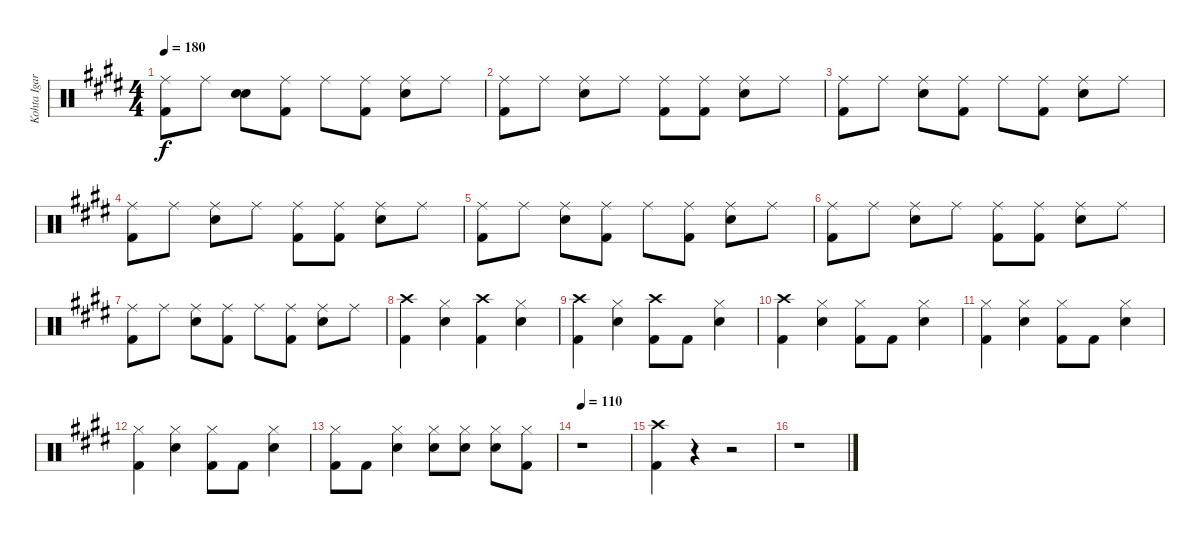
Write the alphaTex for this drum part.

\track ("Kohta Igarashi" "Kohta Igar") {instrument percussion}
\staff {score}
\articulation defaults
\ts (4 4)
\tempo 180
\clef neutral
\ks e
("Ride (middle)" "Kick (hit) 2").8{dy f} "Ride (middle)".8 ("Snare (hit)" "Electric Snare (hit)").8 ("Ride (middle)" "Kick (hit) 2").8 "Ride (middle)".8 ("Ride (middle)" "Kick (hit) 2").8 ("Ride (middle)" "Electric Snare (hit)").8 "Ride (middle)".8 |
("Ride (middle)" "Kick (hit) 2").8 "Ride (middle)".8 ("Ride (middle)" "Electric Snare (hit)").8 "Ride (middle)".8 ("Ride (middle)" "Kick (hit) 2").8 ("Ride (middle)" "Kick (hit) 2").8 ("Ride (middle)" "Electric Snare (hit)").8 "Ride (middle)".8 |
("Ride (middle)" "Kick (hit) 2").8 "Ride (middle)".8 ("Ride (middle)" "Electric Snare (hit)").8 ("Ride (middle)" "Kick (hit) 2").8 "Ride (middle)".8 ("Ride (middle)" "Kick (hit) 2").8 ("Ride (middle)" "Electric Snare (hit)").8 "Ride (middle)".8 |
("Ride (middle)" "Kick (hit) 2").8 "Ride (middle)".8 ("Ride (middle)" "Electric Snare (hit)").8 "Ride (middle)".8 ("Ride (middle)" "Kick (hit) 2").8 ("Ride (middle)" "Kick (hit) 2").8 ("Ride (middle)" "Electric Snare (hit)").8 "Ride (middle)".8 |
("Ride (middle)" "Kick (hit) 2").8 "Ride (middle)".8 ("Ride (middle)" "Electric Snare (hit)").8 ("Ride (middle)" "Kick (hit) 2").8 "Ride (middle)".8 ("Ride (middle)" "Kick (hit) 2").8 ("Ride (middle)" "Electric Snare (hit)").8 "Ride (middle)".8 |
("Ride (middle)" "Kick (hit) 2").8 "Ride (middle)".8 ("Ride (middle)" "Electric Snare (hit)").8 "Ride (middle)".8 ("Ride (middle)" "Kick (hit) 2").8 ("Ride (middle)" "Kick (hit) 2").8 ("Ride (middle)" "Electric Snare (hit)").8 "Ride (middle)".8 |
("Ride (middle)" "Kick (hit) 2").8 "Ride (middle)".8 ("Ride (middle)" "Electric Snare (hit)").8 ("Ride (middle)" "Kick (hit) 2").8 "Ride (middle)".8 ("Ride (middle)" "Kick (hit) 2").8 ("Ride (middle)" "Electric Snare (hit)").8 "Ride (middle)".8 |
("Crash high (hit)" "Kick (hit) 2").4 ("Hi-Hat (closed)" "Electric Snare (hit)").4 ("Crash high (hit)" "Kick (hit) 2").4 ("Hi-Hat (closed)" "Electric Snare (hit)").4 |
("Crash high (hit)" "Kick (hit) 2").4 ("Hi-Hat (closed)" "Electric Snare (hit)").4 ("Crash high (hit)" "Kick (hit) 2").8 "Kick (hit) 2".8 ("Hi-Hat (closed)" "Electric Snare (hit)").4 |
("Crash high (hit)" "Kick (hit) 2").4 ("Hi-Hat (closed)" "Electric Snare (hit)").4 ("Hi-Hat (closed)" "Kick (hit) 2").8 "Kick (hit) 2".8 ("Hi-Hat (closed)" "Electric Snare (hit)").4 |
("Hi-Hat (closed)" "Kick (hit) 2").4 ("Hi-Hat (closed)" "Electric Snare (hit)").4 ("Hi-Hat (closed)" "Kick (hit) 2").8 "Kick (hit) 2".8 ("Hi-Hat (closed)" "Electric Snare (hit)").4 |
("Hi-Hat (closed)" "Kick (hit) 2").4 ("Hi-Hat (closed)" "Electric Snare (hit)").4 ("Hi-Hat (closed)" "Kick (hit) 2").8 "Kick (hit) 2".8 ("Hi-Hat (closed)" "Electric Snare (hit)").4 |
("Hi-Hat (closed)" "Kick (hit) 2").8 "Kick (hit) 2".8 ("Hi-Hat (closed)" "Electric Snare (hit)").4 ("Hi-Hat (closed)" "Electric Snare (hit)").8 ("Hi-Hat (closed)" "Electric Snare (hit)").8 ("Hi-Hat (closed)" "Electric Snare (hit)").8 ("Hi-Hat (closed)" "Kick (hit) 2").8 |
\tempo 110
r.1 |
("Crash high (hit)" "Kick (hit) 2").4 r.4 r.2 |
r.1
